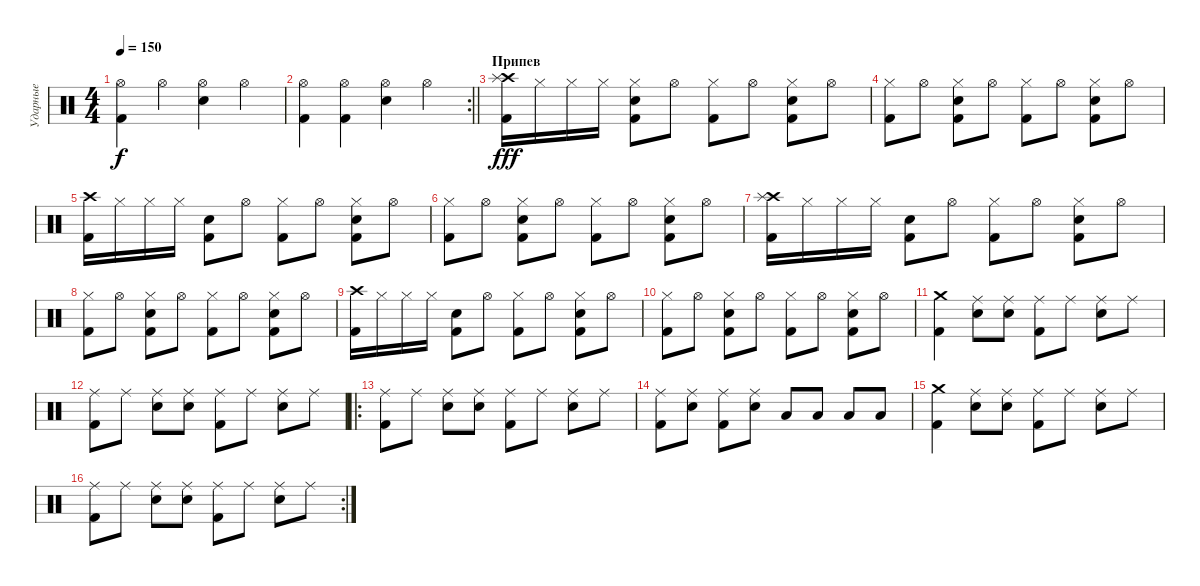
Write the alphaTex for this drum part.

\track ("Ударные" "Ударные") {instrument percussion}
\staff {score}
\articulation defaults
\ts (4 4)
\tempo 150
\clef neutral
\ks c
("Kick (hit) 2" "Hi-Hat (open)").4{dy f} "Hi-Hat (open)".4 ("Electric Snare (hit)" "Hi-Hat (open)").4 "Hi-Hat (open)".4 |
\rc 2
\barLineRight lightlight
("Kick (hit) 2" "Hi-Hat (open)").4 ("Kick (hit) 2" "Hi-Hat (open)").4 ("Electric Snare (hit)" "Hi-Hat (open)").4 "Hi-Hat (open)".4 |
\section ("" "Припев")
("Crash high (hit)" "Kick (hit) 2" "Splash (hit)").16{dy fff} "Hi-Hat (closed)".16 "Hi-Hat (closed)".16 "Hi-Hat (closed)".16 ("Hi-Hat (closed)" "Electric Snare (hit)" "Kick (hit) 2").8 "Hi-Hat (open)".8 ("Hi-Hat (closed)" "Kick (hit) 2").8 "Hi-Hat (open)".8 ("Hi-Hat (closed)" "Electric Snare (hit)" "Kick (hit) 2").8 "Hi-Hat (open)".8 |
("Hi-Hat (closed)" "Kick (hit) 2").8 "Hi-Hat (open)".8 ("Hi-Hat (closed)" "Electric Snare (hit)" "Kick (hit) 2").8 "Hi-Hat (open)".8 ("Hi-Hat (closed)" "Kick (hit) 2").8 "Hi-Hat (open)".8 ("Hi-Hat (closed)" "Electric Snare (hit)" "Kick (hit) 2").8 "Hi-Hat (open)".8 |
("Crash high (hit)" "Kick (hit) 2").16 "Hi-Hat (closed)".16 "Hi-Hat (closed)".16 "Hi-Hat (closed)".16 ("Electric Snare (hit)" "Kick (hit) 2").8 "Hi-Hat (open)".8 ("Hi-Hat (closed)" "Kick (hit) 2").8 "Hi-Hat (open)".8 ("Hi-Hat (closed)" "Electric Snare (hit)" "Kick (hit) 2").8 "Hi-Hat (open)".8 |
("Hi-Hat (closed)" "Kick (hit) 2").8 "Hi-Hat (open)".8 ("Hi-Hat (closed)" "Electric Snare (hit)" "Kick (hit) 2").8 "Hi-Hat (open)".8 ("Hi-Hat (closed)" "Kick (hit) 2").8 "Hi-Hat (open)".8 ("Hi-Hat (closed)" "Electric Snare (hit)" "Kick (hit) 2").8 "Hi-Hat (open)".8 |
("Crash high (hit)" "Kick (hit) 2" "Splash (hit)").16 "Hi-Hat (closed)".16 "Hi-Hat (closed)".16 "Hi-Hat (closed)".16 ("Electric Snare (hit)" "Kick (hit) 2").8 "Hi-Hat (open)".8 ("Hi-Hat (closed)" "Kick (hit) 2").8 "Hi-Hat (open)".8 ("Hi-Hat (closed)" "Electric Snare (hit)" "Kick (hit) 2").8 "Hi-Hat (open)".8 |
("Hi-Hat (closed)" "Kick (hit) 2").8 "Hi-Hat (open)".8 ("Hi-Hat (closed)" "Electric Snare (hit)" "Kick (hit) 2").8 "Hi-Hat (open)".8 ("Hi-Hat (closed)" "Kick (hit) 2").8 "Hi-Hat (open)".8 ("Hi-Hat (closed)" "Electric Snare (hit)" "Kick (hit) 2").8 "Hi-Hat (open)".8 |
("Crash high (hit)" "Kick (hit) 2").16 "Hi-Hat (closed)".16 "Hi-Hat (closed)".16 "Hi-Hat (closed)".16 ("Electric Snare (hit)" "Kick (hit) 2").8 "Hi-Hat (open)".8 ("Hi-Hat (closed)" "Kick (hit) 2").8 "Hi-Hat (open)".8 ("Hi-Hat (closed)" "Electric Snare (hit)" "Kick (hit) 2").8 "Hi-Hat (open)".8 |
("Hi-Hat (closed)" "Kick (hit) 2").8 "Hi-Hat (open)".8 ("Hi-Hat (closed)" "Electric Snare (hit)" "Kick (hit) 2").8 "Hi-Hat (open)".8 ("Hi-Hat (closed)" "Kick (hit) 2").8 "Hi-Hat (open)".8 ("Hi-Hat (closed)" "Electric Snare (hit)" "Kick (hit) 2").8 "Hi-Hat (open)".8 |
("Crash medium (hit)" "Kick (hit) 2").4 ("Ride (middle)" "Electric Snare (hit)").8 ("Ride (middle)" "Electric Snare (hit)").8 ("Ride (middle)" "Kick (hit) 2").8 "Ride (middle)".8 ("Ride (middle)" "Electric Snare (hit)").8 "Ride (middle)".8 |
("Ride (middle)" "Kick (hit) 2").8 "Ride (middle)".8 ("Ride (middle)" "Electric Snare (hit)").8 ("Ride (middle)" "Electric Snare (hit)").8 ("Ride (middle)" "Kick (hit) 2").8 "Ride (middle)".8 ("Ride (middle)" "Electric Snare (hit)").8 "Ride (middle)".8 |
\ro
("Ride (middle)" "Kick (hit) 2").8 "Ride (middle)".8 ("Ride (middle)" "Electric Snare (hit)").8 ("Ride (middle)" "Electric Snare (hit)").8 ("Ride (middle)" "Kick (hit) 2").8 "Ride (middle)".8 ("Ride (middle)" "Electric Snare (hit)").8 "Ride (middle)".8 |
("Ride (middle)" "Kick (hit) 2").8 ("Ride (middle)" "Electric Snare (hit)").8 ("Ride (middle)" "Kick (hit) 2").8 ("Ride (middle)" "Electric Snare (hit)").8 "Low Tom (hit)".8 "Low Tom (hit)".8 "Low Floor Tom (hit)".8 "Low Floor Tom (hit)".8 |
("Crash medium (hit)" "Kick (hit) 2").4 ("Ride (middle)" "Electric Snare (hit)").8 ("Ride (middle)" "Electric Snare (hit)").8 ("Ride (middle)" "Kick (hit) 2").8 "Ride (middle)".8 ("Ride (middle)" "Electric Snare (hit)").8 "Ride (middle)".8 |
\rc 2
("Ride (middle)" "Kick (hit) 2").8 "Ride (middle)".8 ("Ride (middle)" "Electric Snare (hit)").8 ("Ride (middle)" "Electric Snare (hit)").8 ("Ride (middle)" "Kick (hit) 2").8 "Ride (middle)".8 ("Ride (middle)" "Electric Snare (hit)").8 "Ride (middle)".8
